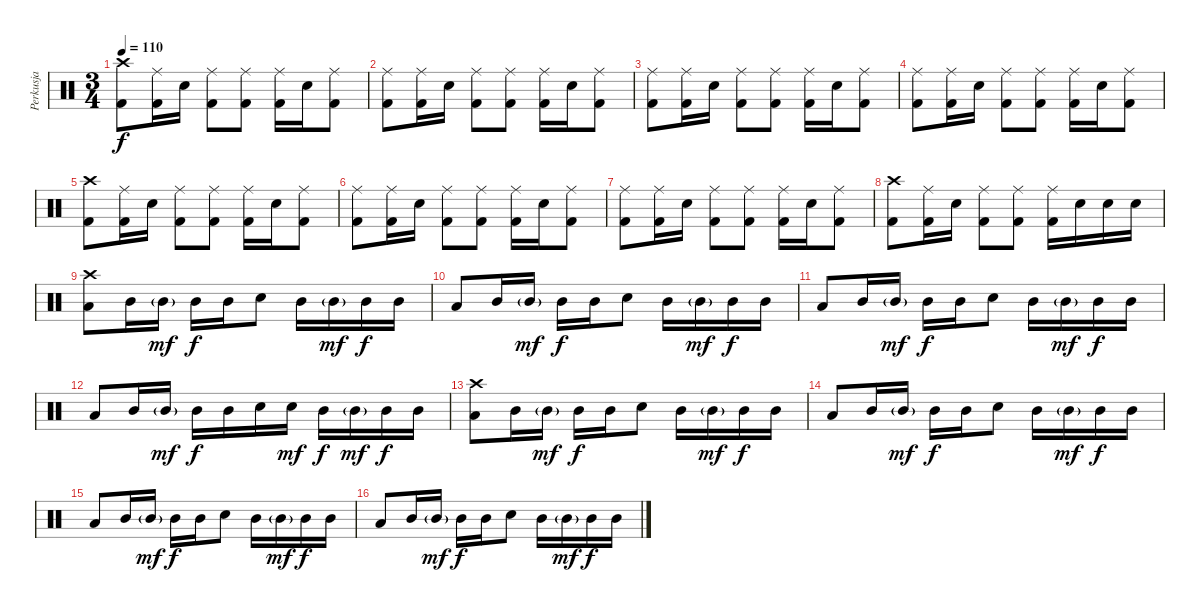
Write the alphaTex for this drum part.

\track ("Perkusja" "Perkusja") {instrument percussion}
\staff {score}
\articulation defaults
\ts (3 4)
\tempo 110
\clef neutral
\ks c
("Crash high (hit)" "Kick (hit) 2").8{dy f} ("Ride (middle)" "Kick (hit) 2").16 "Snare (hit) 2".16 ("Ride (middle)" "Kick (hit) 2").8 ("Ride (middle)" "Kick (hit) 2").8 ("Ride (middle)" "Kick (hit) 2").16 "Snare (hit) 2".16 ("Ride (middle)" "Kick (hit) 2").8 |
("Ride (middle)" "Kick (hit) 2").8 ("Ride (middle)" "Kick (hit) 2").16 "Snare (hit) 2".16 ("Ride (middle)" "Kick (hit) 2").8 ("Ride (middle)" "Kick (hit) 2").8 ("Ride (middle)" "Kick (hit) 2").16 "Snare (hit) 2".16 ("Ride (middle)" "Kick (hit) 2").8 |
("Ride (middle)" "Kick (hit) 2").8 ("Ride (middle)" "Kick (hit) 2").16 "Snare (hit) 2".16 ("Ride (middle)" "Kick (hit) 2").8 ("Ride (middle)" "Kick (hit) 2").8 ("Ride (middle)" "Kick (hit) 2").16 "Snare (hit) 2".16 ("Ride (middle)" "Kick (hit) 2").8 |
("Ride (middle)" "Kick (hit) 2").8 ("Ride (middle)" "Kick (hit) 2").16 "Snare (hit) 2".16 ("Ride (middle)" "Kick (hit) 2").8 ("Ride (middle)" "Kick (hit) 2").8 ("Ride (middle)" "Kick (hit) 2").16 "Snare (hit) 2".16 ("Ride (middle)" "Kick (hit) 2").8 |
("Crash high (hit)" "Kick (hit) 2").8 ("Ride (middle)" "Kick (hit) 2").16 "Snare (hit) 2".16 ("Ride (middle)" "Kick (hit) 2").8 ("Ride (middle)" "Kick (hit) 2").8 ("Ride (middle)" "Kick (hit) 2").16 "Snare (hit) 2".16 ("Ride (middle)" "Kick (hit) 2").8 |
("Ride (middle)" "Kick (hit) 2").8 ("Ride (middle)" "Kick (hit) 2").16 "Snare (hit) 2".16 ("Ride (middle)" "Kick (hit) 2").8 ("Ride (middle)" "Kick (hit) 2").8 ("Ride (middle)" "Kick (hit) 2").16 "Snare (hit) 2".16 ("Ride (middle)" "Kick (hit) 2").8 |
("Ride (middle)" "Kick (hit) 2").8 ("Ride (middle)" "Kick (hit) 2").16 "Snare (hit) 2".16 ("Ride (middle)" "Kick (hit) 2").8 ("Ride (middle)" "Kick (hit) 2").8 ("Ride (middle)" "Kick (hit) 2").16 "Snare (hit) 2".16 ("Ride (middle)" "Kick (hit) 2").8 |
("Crash high (hit)" "Kick (hit) 2").8 ("Ride (middle)" "Kick (hit) 2").16 "Snare (hit) 2".16 ("Ride (middle)" "Kick (hit) 2").8 ("Ride (middle)" "Kick (hit) 2").8 ("Ride (middle)" "Kick (hit) 2").16 "Snare (hit) 2".16 "Snare (hit) 2".16 "Snare (hit) 2".16 |
("Crash high (hit)" "Low Floor Tom (hit)").8 "Mid Tom (hit)".16 "Mid Tom (hit)"{g}.16{dy mf} "Mid Tom (hit)".16{dy f} "Mid Tom (hit)".16 "Snare (hit) 2".8 "Mid Tom (hit)".16 "Mid Tom (hit)"{g}.16{dy mf} "Mid Tom (hit)".16{dy f} "Mid Tom (hit)".16 |
"Low Floor Tom (hit)".8 "Mid Tom (hit)".16 "Mid Tom (hit)"{g}.16{dy mf} "Mid Tom (hit)".16{dy f} "Mid Tom (hit)".16 "Snare (hit) 2".8 "Mid Tom (hit)".16 "Mid Tom (hit)"{g}.16{dy mf} "Mid Tom (hit)".16{dy f} "Mid Tom (hit)".16 |
"Low Floor Tom (hit)".8 "Mid Tom (hit)".16 "Mid Tom (hit)"{g}.16{dy mf} "Mid Tom (hit)".16{dy f} "Mid Tom (hit)".16 "Snare (hit) 2".8 "Mid Tom (hit)".16 "Mid Tom (hit)"{g}.16{dy mf} "Mid Tom (hit)".16{dy f} "Mid Tom (hit)".16 |
"Low Floor Tom (hit)".8 "Mid Tom (hit)".16 "Mid Tom (hit)"{g}.16{dy mf} "Mid Tom (hit)".16{dy f} "Mid Tom (hit)".16 "Snare (hit) 2".16 "Snare (hit) 2".16{dy mf} "Mid Tom (hit)".16{dy f} "Mid Tom (hit)"{g}.16{dy mf} "Mid Tom (hit)".16{dy f} "Mid Tom (hit)".16 |
("Crash high (hit)" "Low Floor Tom (hit)").8 "Mid Tom (hit)".16 "Mid Tom (hit)"{g}.16{dy mf} "Mid Tom (hit)".16{dy f} "Mid Tom (hit)".16 "Snare (hit) 2".8 "Mid Tom (hit)".16 "Mid Tom (hit)"{g}.16{dy mf} "Mid Tom (hit)".16{dy f} "Mid Tom (hit)".16 |
"Low Floor Tom (hit)".8 "Mid Tom (hit)".16 "Mid Tom (hit)"{g}.16{dy mf} "Mid Tom (hit)".16{dy f} "Mid Tom (hit)".16 "Snare (hit) 2".8 "Mid Tom (hit)".16 "Mid Tom (hit)"{g}.16{dy mf} "Mid Tom (hit)".16{dy f} "Mid Tom (hit)".16 |
"Low Floor Tom (hit)".8 "Mid Tom (hit)".16 "Mid Tom (hit)"{g}.16{dy mf} "Mid Tom (hit)".16{dy f} "Mid Tom (hit)".16 "Snare (hit) 2".8 "Mid Tom (hit)".16 "Mid Tom (hit)"{g}.16{dy mf} "Mid Tom (hit)".16{dy f} "Mid Tom (hit)".16 |
"Low Floor Tom (hit)".8 "Mid Tom (hit)".16 "Mid Tom (hit)"{g}.16{dy mf} "Mid Tom (hit)".16{dy f} "Mid Tom (hit)".16 "Snare (hit) 2".8 "Mid Tom (hit)".16 "Mid Tom (hit)"{g}.16{dy mf} "Mid Tom (hit)".16{dy f} "Mid Tom (hit)".16
